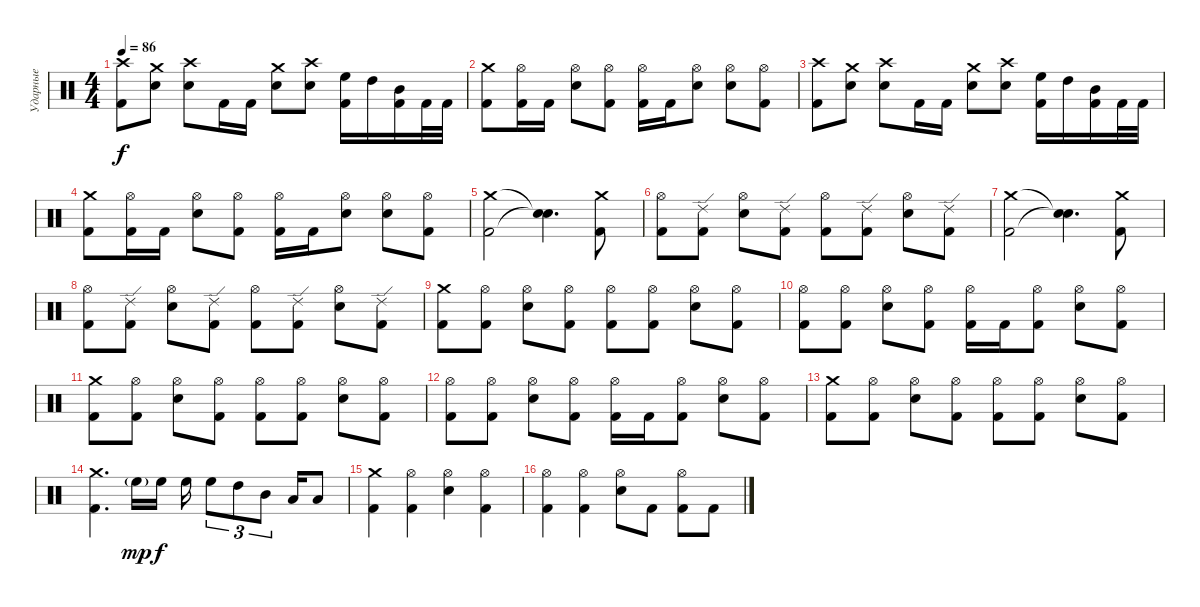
\track ("Ударные" "Ударные") {instrument percussion}
\staff {score}
\articulation defaults
\ts (4 4)
\tempo 86
\clef neutral
\ks c
("Crash high (hit)" "Kick (hit) 2").8{dy f} ("Crash medium (hit)" "Electric Snare (hit)").8 ("Crash high (hit)" "Electric Snare (hit)").8 "Kick (hit) 2".16 "Kick (hit) 2".16 ("Crash medium (hit)" "Electric Snare (hit)").8 ("Crash high (hit)" "Electric Snare (hit)").8 ("High Floor Tom (hit)" "Kick (hit) 2").16 "High Tom (hit)".16 ("Mid Tom (hit)" "Kick (hit) 2").16 "Kick (hit) 2".32 "Kick (hit) 2".32 |
("Crash medium (hit)" "Kick (hit) 2").8 ("Hi-Hat (open)" "Kick (hit) 2").16 "Kick (hit) 2".16 ("Hi-Hat (open)" "Electric Snare (hit)").8 ("Hi-Hat (open)" "Kick (hit) 2").8 ("Hi-Hat (open)" "Kick (hit) 2").16 "Kick (hit) 2".16 ("Hi-Hat (open)" "Electric Snare (hit)").8 ("Hi-Hat (open)" "Electric Snare (hit)").8 ("Hi-Hat (open)" "Kick (hit) 2").8 |
("Crash high (hit)" "Kick (hit) 2").8 ("Crash medium (hit)" "Electric Snare (hit)").8 ("Crash high (hit)" "Electric Snare (hit)").8 "Kick (hit) 2".16 "Kick (hit) 2".16 ("Crash medium (hit)" "Electric Snare (hit)").8 ("Crash high (hit)" "Electric Snare (hit)").8 ("High Floor Tom (hit)" "Kick (hit) 2").16 "High Tom (hit)".16 ("Mid Tom (hit)" "Kick (hit) 2").16 "Kick (hit) 2".32 "Kick (hit) 2".32 |
("Crash medium (hit)" "Kick (hit) 2").8 ("Hi-Hat (open)" "Kick (hit) 2").16 "Kick (hit) 2".16 ("Hi-Hat (open)" "Electric Snare (hit)").8 ("Hi-Hat (open)" "Kick (hit) 2").8 ("Hi-Hat (open)" "Kick (hit) 2").16 "Kick (hit) 2".16 ("Hi-Hat (open)" "Electric Snare (hit)").8 ("Hi-Hat (open)" "Electric Snare (hit)").8 ("Hi-Hat (open)" "Kick (hit) 2").8 |
("Crash medium (hit)" "Kick (hit) 2").2 ("Snare (hit)"{t} "Snare (hit)"{t}).4{d} ("Crash medium (hit)" "Kick (hit) 2").8 |
("Hi-Hat (open)" "Kick (hit) 2").8 ("Ride (edge) 2" "Kick (hit) 2").8 ("Hi-Hat (open)" "Electric Snare (hit)").8 ("Ride (edge) 2" "Kick (hit) 2").8 ("Hi-Hat (open)" "Kick (hit) 2").8 ("Ride (edge) 2" "Kick (hit) 2").8 ("Hi-Hat (open)" "Electric Snare (hit)").8 ("Ride (edge) 2" "Kick (hit) 2").8 |
("Crash medium (hit)" "Kick (hit) 2").2 ("Snare (hit)"{t} "Snare (hit)"{t}).4{d} ("Crash medium (hit)" "Kick (hit) 2").8 |
("Hi-Hat (open)" "Kick (hit) 2").8 ("Ride (edge) 2" "Kick (hit) 2").8 ("Hi-Hat (open)" "Electric Snare (hit)").8 ("Ride (edge) 2" "Kick (hit) 2").8 ("Hi-Hat (open)" "Kick (hit) 2").8 ("Ride (edge) 2" "Kick (hit) 2").8 ("Hi-Hat (open)" "Electric Snare (hit)").8 ("Ride (edge) 2" "Kick (hit) 2").8 |
("Crash medium (hit)" "Kick (hit) 2").8 ("Hi-Hat (open)" "Kick (hit) 2").8 ("Hi-Hat (open)" "Electric Snare (hit)").8 ("Hi-Hat (open)" "Kick (hit) 2").8 ("Hi-Hat (open)" "Kick (hit) 2").8 ("Hi-Hat (open)" "Kick (hit) 2").8 ("Hi-Hat (open)" "Electric Snare (hit)").8 ("Hi-Hat (open)" "Kick (hit) 2").8 |
("Hi-Hat (open)" "Kick (hit) 2").8 ("Hi-Hat (open)" "Kick (hit) 2").8 ("Hi-Hat (open)" "Electric Snare (hit)").8 ("Hi-Hat (open)" "Kick (hit) 2").8 ("Hi-Hat (open)" "Kick (hit) 2").16 "Kick (hit) 2".16 ("Hi-Hat (open)" "Kick (hit) 2").8 ("Hi-Hat (open)" "Electric Snare (hit)").8 ("Hi-Hat (open)" "Kick (hit) 2").8 |
("Crash medium (hit)" "Kick (hit) 2").8 ("Hi-Hat (open)" "Kick (hit) 2").8 ("Hi-Hat (open)" "Electric Snare (hit)").8 ("Hi-Hat (open)" "Kick (hit) 2").8 ("Hi-Hat (open)" "Kick (hit) 2").8 ("Hi-Hat (open)" "Kick (hit) 2").8 ("Hi-Hat (open)" "Electric Snare (hit)").8 ("Hi-Hat (open)" "Kick (hit) 2").8 |
("Hi-Hat (open)" "Kick (hit) 2").8 ("Hi-Hat (open)" "Kick (hit) 2").8 ("Hi-Hat (open)" "Electric Snare (hit)").8 ("Hi-Hat (open)" "Kick (hit) 2").8 ("Hi-Hat (open)" "Kick (hit) 2").16 "Kick (hit) 2".16 ("Hi-Hat (open)" "Kick (hit) 2").8 ("Hi-Hat (open)" "Electric Snare (hit)").8 ("Hi-Hat (open)" "Kick (hit) 2").8 |
("Crash medium (hit)" "Kick (hit) 2").8 ("Hi-Hat (open)" "Kick (hit) 2").8 ("Hi-Hat (open)" "Electric Snare (hit)").8 ("Hi-Hat (open)" "Kick (hit) 2").8 ("Hi-Hat (open)" "Kick (hit) 2").8 ("Hi-Hat (open)" "Kick (hit) 2").8 ("Hi-Hat (open)" "Electric Snare (hit)").8 ("Hi-Hat (open)" "Kick (hit) 2").8 |
("Crash medium (hit)" "Kick (hit) 2").4{d} "High Floor Tom (hit)"{g}.16{dy mp} "High Floor Tom (hit)".16{dy f} "High Floor Tom (hit)".16 "High Floor Tom (hit)".8{tu (3 2)} "High Tom (hit)".8{tu (3 2)} "Mid Tom (hit)".8{tu (3 2)} "Low Tom (hit)".16 "Low Tom (hit)".8 |
("Crash medium (hit)" "Kick (hit) 2").4 ("Hi-Hat (open)" "Kick (hit) 2").4 ("Hi-Hat (open)" "Electric Snare (hit)").4 ("Hi-Hat (open)" "Kick (hit) 2").4 |
("Hi-Hat (open)" "Kick (hit) 2").4 ("Hi-Hat (open)" "Kick (hit) 2").4 ("Hi-Hat (open)" "Electric Snare (hit)").8 "Kick (hit) 2".8 ("Hi-Hat (open)" "Kick (hit) 2").8 "Kick (hit) 2".8
